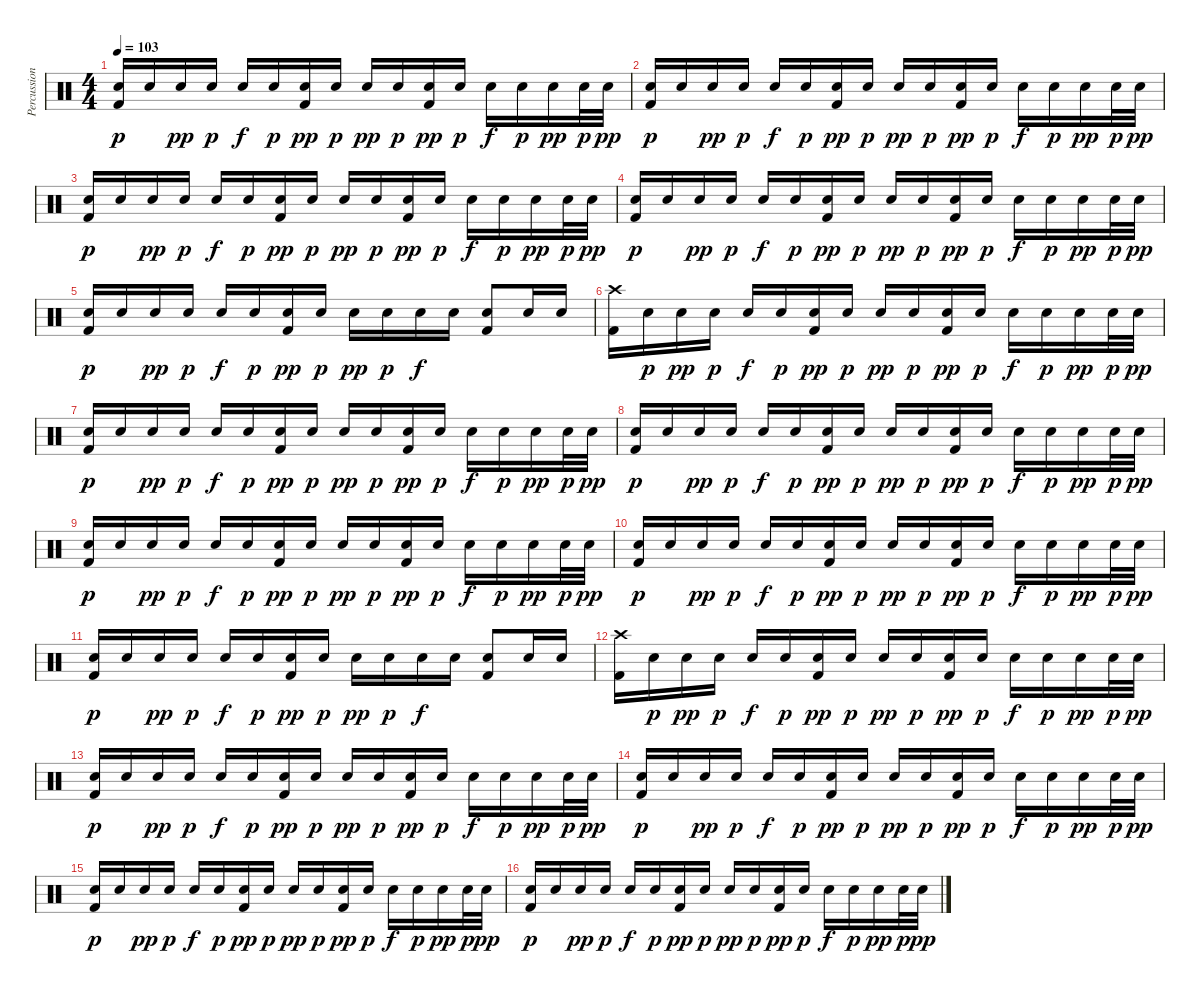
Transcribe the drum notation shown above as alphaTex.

\track ("Percussion" "Percussion") {instrument percussion}
\staff {score}
\articulation defaults
\ts (4 4)
\tempo 103
\clef neutral
\ks c
("Electric Snare (hit)" "Kick (hit) 2").16{dy p} "Electric Snare (hit)".16 "Electric Snare (hit)".16{dy pp} "Electric Snare (hit)".16{dy p} "Electric Snare (hit)".16{dy f} "Electric Snare (hit)".16{dy p} ("Electric Snare (hit)" "Kick (hit) 2").16{dy pp} "Electric Snare (hit)".16{dy p} "Electric Snare (hit)".16{dy pp} "Electric Snare (hit)".16{dy p} ("Electric Snare (hit)" "Kick (hit) 2").16{dy pp} "Electric Snare (hit)".16{dy p} "Electric Snare (hit)".16{dy f} "Electric Snare (hit)".16{dy p} "Electric Snare (hit)".16{dy pp} "Electric Snare (hit)".32{dy p} "Electric Snare (hit)".32{dy pp} |
("Electric Snare (hit)" "Kick (hit) 2").16{dy p} "Electric Snare (hit)".16 "Electric Snare (hit)".16{dy pp} "Electric Snare (hit)".16{dy p} "Electric Snare (hit)".16{dy f} "Electric Snare (hit)".16{dy p} ("Electric Snare (hit)" "Kick (hit) 2").16{dy pp} "Electric Snare (hit)".16{dy p} "Electric Snare (hit)".16{dy pp} "Electric Snare (hit)".16{dy p} ("Electric Snare (hit)" "Kick (hit) 2").16{dy pp} "Electric Snare (hit)".16{dy p} "Electric Snare (hit)".16{dy f} "Electric Snare (hit)".16{dy p} "Electric Snare (hit)".16{dy pp} "Electric Snare (hit)".32{dy p} "Electric Snare (hit)".32{dy pp} |
("Electric Snare (hit)" "Kick (hit) 2").16{dy p} "Electric Snare (hit)".16 "Electric Snare (hit)".16{dy pp} "Electric Snare (hit)".16{dy p} "Electric Snare (hit)".16{dy f} "Electric Snare (hit)".16{dy p} ("Electric Snare (hit)" "Kick (hit) 2").16{dy pp} "Electric Snare (hit)".16{dy p} "Electric Snare (hit)".16{dy pp} "Electric Snare (hit)".16{dy p} ("Electric Snare (hit)" "Kick (hit) 2").16{dy pp} "Electric Snare (hit)".16{dy p} "Electric Snare (hit)".16{dy f} "Electric Snare (hit)".16{dy p} "Electric Snare (hit)".16{dy pp} "Electric Snare (hit)".32{dy p} "Electric Snare (hit)".32{dy pp} |
("Electric Snare (hit)" "Kick (hit) 2").16{dy p} "Electric Snare (hit)".16 "Electric Snare (hit)".16{dy pp} "Electric Snare (hit)".16{dy p} "Electric Snare (hit)".16{dy f} "Electric Snare (hit)".16{dy p} ("Electric Snare (hit)" "Kick (hit) 2").16{dy pp} "Electric Snare (hit)".16{dy p} "Electric Snare (hit)".16{dy pp} "Electric Snare (hit)".16{dy p} ("Electric Snare (hit)" "Kick (hit) 2").16{dy pp} "Electric Snare (hit)".16{dy p} "Electric Snare (hit)".16{dy f} "Electric Snare (hit)".16{dy p} "Electric Snare (hit)".16{dy pp} "Electric Snare (hit)".32{dy p} "Electric Snare (hit)".32{dy pp} |
("Electric Snare (hit)" "Kick (hit) 2").16{dy p} "Electric Snare (hit)".16 "Electric Snare (hit)".16{dy pp} "Electric Snare (hit)".16{dy p} "Electric Snare (hit)".16{dy f} "Electric Snare (hit)".16{dy p} ("Electric Snare (hit)" "Kick (hit) 2").16{dy pp} "Electric Snare (hit)".16{dy p} "Electric Snare (hit)".16{dy pp} "Electric Snare (hit)".16{dy p} "Electric Snare (hit)".16{dy f} "Electric Snare (hit)".16 ("Electric Snare (hit)" "Kick (hit) 2").8 "Electric Snare (hit)".16 "Electric Snare (hit)".16 |
("Crash high (hit)" "Kick (hit) 2").16 "Electric Snare (hit)".16{dy p} "Electric Snare (hit)".16{dy pp} "Electric Snare (hit)".16{dy p} "Electric Snare (hit)".16{dy f} "Electric Snare (hit)".16{dy p} ("Electric Snare (hit)" "Kick (hit) 2").16{dy pp} "Electric Snare (hit)".16{dy p} "Electric Snare (hit)".16{dy pp} "Electric Snare (hit)".16{dy p} ("Electric Snare (hit)" "Kick (hit) 2").16{dy pp} "Electric Snare (hit)".16{dy p} "Electric Snare (hit)".16{dy f} "Electric Snare (hit)".16{dy p} "Electric Snare (hit)".16{dy pp} "Electric Snare (hit)".32{dy p} "Electric Snare (hit)".32{dy pp} |
("Electric Snare (hit)" "Kick (hit) 2").16{dy p} "Electric Snare (hit)".16 "Electric Snare (hit)".16{dy pp} "Electric Snare (hit)".16{dy p} "Electric Snare (hit)".16{dy f} "Electric Snare (hit)".16{dy p} ("Electric Snare (hit)" "Kick (hit) 2").16{dy pp} "Electric Snare (hit)".16{dy p} "Electric Snare (hit)".16{dy pp} "Electric Snare (hit)".16{dy p} ("Electric Snare (hit)" "Kick (hit) 2").16{dy pp} "Electric Snare (hit)".16{dy p} "Electric Snare (hit)".16{dy f} "Electric Snare (hit)".16{dy p} "Electric Snare (hit)".16{dy pp} "Electric Snare (hit)".32{dy p} "Electric Snare (hit)".32{dy pp} |
("Electric Snare (hit)" "Kick (hit) 2").16{dy p} "Electric Snare (hit)".16 "Electric Snare (hit)".16{dy pp} "Electric Snare (hit)".16{dy p} "Electric Snare (hit)".16{dy f} "Electric Snare (hit)".16{dy p} ("Electric Snare (hit)" "Kick (hit) 2").16{dy pp} "Electric Snare (hit)".16{dy p} "Electric Snare (hit)".16{dy pp} "Electric Snare (hit)".16{dy p} ("Electric Snare (hit)" "Kick (hit) 2").16{dy pp} "Electric Snare (hit)".16{dy p} "Electric Snare (hit)".16{dy f} "Electric Snare (hit)".16{dy p} "Electric Snare (hit)".16{dy pp} "Electric Snare (hit)".32{dy p} "Electric Snare (hit)".32{dy pp} |
("Electric Snare (hit)" "Kick (hit) 2").16{dy p} "Electric Snare (hit)".16 "Electric Snare (hit)".16{dy pp} "Electric Snare (hit)".16{dy p} "Electric Snare (hit)".16{dy f} "Electric Snare (hit)".16{dy p} ("Electric Snare (hit)" "Kick (hit) 2").16{dy pp} "Electric Snare (hit)".16{dy p} "Electric Snare (hit)".16{dy pp} "Electric Snare (hit)".16{dy p} ("Electric Snare (hit)" "Kick (hit) 2").16{dy pp} "Electric Snare (hit)".16{dy p} "Electric Snare (hit)".16{dy f} "Electric Snare (hit)".16{dy p} "Electric Snare (hit)".16{dy pp} "Electric Snare (hit)".32{dy p} "Electric Snare (hit)".32{dy pp} |
("Electric Snare (hit)" "Kick (hit) 2").16{dy p} "Electric Snare (hit)".16 "Electric Snare (hit)".16{dy pp} "Electric Snare (hit)".16{dy p} "Electric Snare (hit)".16{dy f} "Electric Snare (hit)".16{dy p} ("Electric Snare (hit)" "Kick (hit) 2").16{dy pp} "Electric Snare (hit)".16{dy p} "Electric Snare (hit)".16{dy pp} "Electric Snare (hit)".16{dy p} ("Electric Snare (hit)" "Kick (hit) 2").16{dy pp} "Electric Snare (hit)".16{dy p} "Electric Snare (hit)".16{dy f} "Electric Snare (hit)".16{dy p} "Electric Snare (hit)".16{dy pp} "Electric Snare (hit)".32{dy p} "Electric Snare (hit)".32{dy pp} |
("Electric Snare (hit)" "Kick (hit) 2").16{dy p} "Electric Snare (hit)".16 "Electric Snare (hit)".16{dy pp} "Electric Snare (hit)".16{dy p} "Electric Snare (hit)".16{dy f} "Electric Snare (hit)".16{dy p} ("Electric Snare (hit)" "Kick (hit) 2").16{dy pp} "Electric Snare (hit)".16{dy p} "Electric Snare (hit)".16{dy pp} "Electric Snare (hit)".16{dy p} "Electric Snare (hit)".16{dy f} "Electric Snare (hit)".16 ("Electric Snare (hit)" "Kick (hit) 2").8 "Electric Snare (hit)".16 "Electric Snare (hit)".16 |
("Crash high (hit)" "Kick (hit) 2").16 "Electric Snare (hit)".16{dy p} "Electric Snare (hit)".16{dy pp} "Electric Snare (hit)".16{dy p} "Electric Snare (hit)".16{dy f} "Electric Snare (hit)".16{dy p} ("Electric Snare (hit)" "Kick (hit) 2").16{dy pp} "Electric Snare (hit)".16{dy p} "Electric Snare (hit)".16{dy pp} "Electric Snare (hit)".16{dy p} ("Electric Snare (hit)" "Kick (hit) 2").16{dy pp} "Electric Snare (hit)".16{dy p} "Electric Snare (hit)".16{dy f} "Electric Snare (hit)".16{dy p} "Electric Snare (hit)".16{dy pp} "Electric Snare (hit)".32{dy p} "Electric Snare (hit)".32{dy pp} |
("Electric Snare (hit)" "Kick (hit) 2").16{dy p} "Electric Snare (hit)".16 "Electric Snare (hit)".16{dy pp} "Electric Snare (hit)".16{dy p} "Electric Snare (hit)".16{dy f} "Electric Snare (hit)".16{dy p} ("Electric Snare (hit)" "Kick (hit) 2").16{dy pp} "Electric Snare (hit)".16{dy p} "Electric Snare (hit)".16{dy pp} "Electric Snare (hit)".16{dy p} ("Electric Snare (hit)" "Kick (hit) 2").16{dy pp} "Electric Snare (hit)".16{dy p} "Electric Snare (hit)".16{dy f} "Electric Snare (hit)".16{dy p} "Electric Snare (hit)".16{dy pp} "Electric Snare (hit)".32{dy p} "Electric Snare (hit)".32{dy pp} |
("Electric Snare (hit)" "Kick (hit) 2").16{dy p} "Electric Snare (hit)".16 "Electric Snare (hit)".16{dy pp} "Electric Snare (hit)".16{dy p} "Electric Snare (hit)".16{dy f} "Electric Snare (hit)".16{dy p} ("Electric Snare (hit)" "Kick (hit) 2").16{dy pp} "Electric Snare (hit)".16{dy p} "Electric Snare (hit)".16{dy pp} "Electric Snare (hit)".16{dy p} ("Electric Snare (hit)" "Kick (hit) 2").16{dy pp} "Electric Snare (hit)".16{dy p} "Electric Snare (hit)".16{dy f} "Electric Snare (hit)".16{dy p} "Electric Snare (hit)".16{dy pp} "Electric Snare (hit)".32{dy p} "Electric Snare (hit)".32{dy pp} |
("Electric Snare (hit)" "Kick (hit) 2").16{dy p} "Electric Snare (hit)".16 "Electric Snare (hit)".16{dy pp} "Electric Snare (hit)".16{dy p} "Electric Snare (hit)".16{dy f} "Electric Snare (hit)".16{dy p} ("Electric Snare (hit)" "Kick (hit) 2").16{dy pp} "Electric Snare (hit)".16{dy p} "Electric Snare (hit)".16{dy pp} "Electric Snare (hit)".16{dy p} ("Electric Snare (hit)" "Kick (hit) 2").16{dy pp} "Electric Snare (hit)".16{dy p} "Electric Snare (hit)".16{dy f} "Electric Snare (hit)".16{dy p} "Electric Snare (hit)".16{dy pp} "Electric Snare (hit)".32{dy p} "Electric Snare (hit)".32{dy pp} |
("Electric Snare (hit)" "Kick (hit) 2").16{dy p} "Electric Snare (hit)".16 "Electric Snare (hit)".16{dy pp} "Electric Snare (hit)".16{dy p} "Electric Snare (hit)".16{dy f} "Electric Snare (hit)".16{dy p} ("Electric Snare (hit)" "Kick (hit) 2").16{dy pp} "Electric Snare (hit)".16{dy p} "Electric Snare (hit)".16{dy pp} "Electric Snare (hit)".16{dy p} ("Electric Snare (hit)" "Kick (hit) 2").16{dy pp} "Electric Snare (hit)".16{dy p} "Electric Snare (hit)".16{dy f} "Electric Snare (hit)".16{dy p} "Electric Snare (hit)".16{dy pp} "Electric Snare (hit)".32{dy p} "Electric Snare (hit)".32{dy pp}
